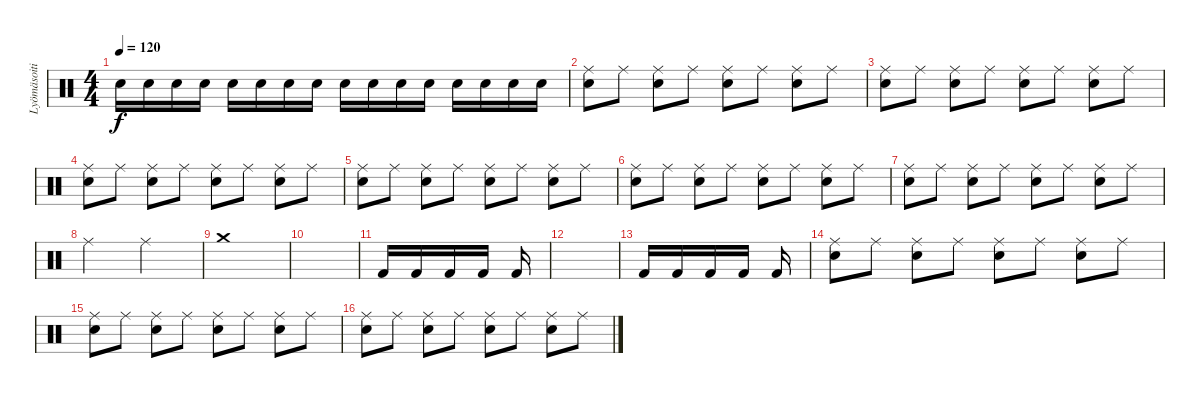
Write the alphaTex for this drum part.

\track ("Lyömäsoitin" "Lyömäsoiti") {instrument percussion}
\staff {score}
\articulation defaults
\ts (4 4)
\tempo 120
\clef neutral
\ks c "Electric Snare (hit)".16{dy f} "Electric Snare (hit)".16 "Electric Snare (hit)".16 "Electric Snare (hit)".16 "Electric Snare (hit)".16 "Electric Snare (hit)".16 "Electric Snare (hit)".16 "Electric Snare (hit)".16 "Electric Snare (hit)".16 "Electric Snare (hit)".16 "Electric Snare (hit)".16 "Electric Snare (hit)".16 "Electric Snare (hit)".16 "Electric Snare (hit)".16 "Electric Snare (hit)".16 "Electric Snare (hit)".16
|
("Ride (middle)" "Electric Snare (hit)").8 "Ride (middle)".8 ("Ride (middle)" "Electric Snare (hit)").8 "Ride (middle)".8 ("Ride (middle)" "Electric Snare (hit)").8 "Ride (middle)".8 ("Ride (middle)" "Electric Snare (hit)").8 "Ride (middle)".8 |
("Ride (middle)" "Electric Snare (hit)").8 "Ride (middle)".8 ("Ride (middle)" "Electric Snare (hit)").8 "Ride (middle)".8 ("Ride (middle)" "Electric Snare (hit)").8 "Ride (middle)".8 ("Ride (middle)" "Electric Snare (hit)").8 "Ride (middle)".8 |
("Ride (middle)" "Electric Snare (hit)").8 "Ride (middle)".8 ("Ride (middle)" "Electric Snare (hit)").8 "Ride (middle)".8 ("Ride (middle)" "Electric Snare (hit)").8 "Ride (middle)".8 ("Ride (middle)" "Electric Snare (hit)").8 "Ride (middle)".8 |
("Ride (middle)" "Electric Snare (hit)").8 "Ride (middle)".8 ("Ride (middle)" "Electric Snare (hit)").8 "Ride (middle)".8 ("Ride (middle)" "Electric Snare (hit)").8 "Ride (middle)".8 ("Ride (middle)" "Electric Snare (hit)").8 "Ride (middle)".8 |
("Ride (middle)" "Electric Snare (hit)").8 "Ride (middle)".8 ("Ride (middle)" "Electric Snare (hit)").8 "Ride (middle)".8 ("Ride (middle)" "Electric Snare (hit)").8 "Ride (middle)".8 ("Ride (middle)" "Electric Snare (hit)").8 "Ride (middle)".8 |
("Ride (middle)" "Electric Snare (hit)").8 "Ride (middle)".8 ("Ride (middle)" "Electric Snare (hit)").8 "Ride (middle)".8 ("Ride (middle)" "Electric Snare (hit)").8 "Ride (middle)".8 ("Ride (middle)" "Electric Snare (hit)").8 "Ride (middle)".8 |
"Ride (middle)".2 "Ride (middle)".2 |
"Crash medium (hit)".1 |
|
"Kick (hit) 2".16 "Kick (hit) 2".16 "Kick (hit) 2".16 "Kick (hit) 2".16 "Kick (hit) 2".16 |
|
"Kick (hit) 2".16 "Kick (hit) 2".16 "Kick (hit) 2".16 "Kick (hit) 2".16 "Kick (hit) 2".16 |
("Ride (middle)" "Electric Snare (hit)").8 "Ride (middle)".8 ("Ride (middle)" "Electric Snare (hit)").8 "Ride (middle)".8 ("Ride (middle)" "Electric Snare (hit)").8 "Ride (middle)".8 ("Ride (middle)" "Electric Snare (hit)").8 "Ride (middle)".8 |
("Ride (middle)" "Electric Snare (hit)").8 "Ride (middle)".8 ("Ride (middle)" "Electric Snare (hit)").8 "Ride (middle)".8 ("Ride (middle)" "Electric Snare (hit)").8 "Ride (middle)".8 ("Ride (middle)" "Electric Snare (hit)").8 "Ride (middle)".8 |
("Ride (middle)" "Electric Snare (hit)").8 "Ride (middle)".8 ("Ride (middle)" "Electric Snare (hit)").8 "Ride (middle)".8 ("Ride (middle)" "Electric Snare (hit)").8 "Ride (middle)".8 ("Ride (middle)" "Electric Snare (hit)").8 "Ride (middle)".8
